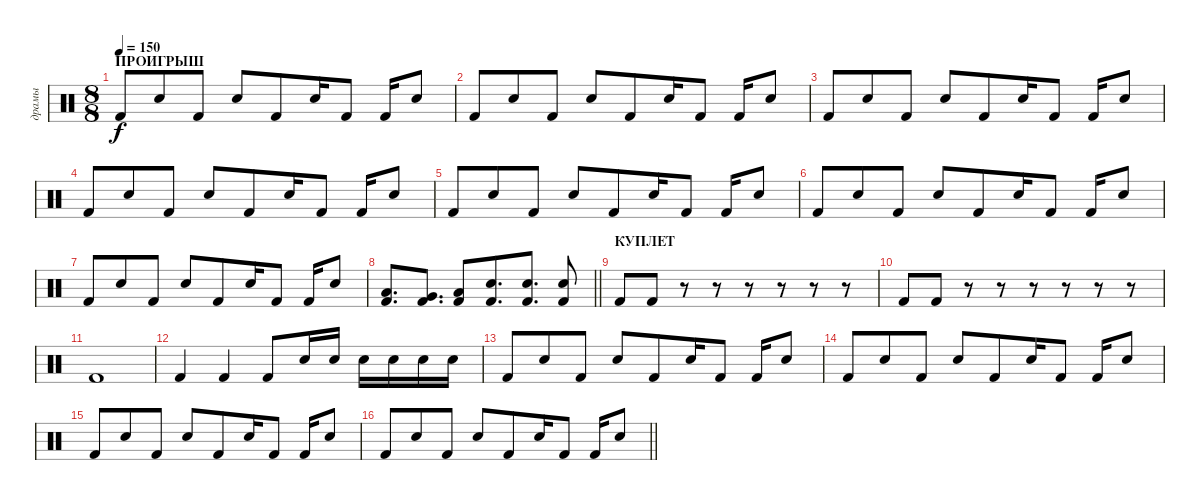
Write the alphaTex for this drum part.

\track ("драмы" "драмы") {instrument percussion}
\staff {score}
\articulation defaults
\ts (8 8)
\section ("" "ПРОИГРЫШ")
\tempo 150
\clef neutral
\ks c "Kick (hit) 2".8{dy f} "Electric Snare (hit)".8 "Kick (hit) 2".8 "Electric Snare (hit)".8 "Kick (hit) 2".8 "Electric Snare (hit)".16 "Kick (hit) 2".8 "Kick (hit) 2".16 "Electric Snare (hit)".8
|
"Kick (hit) 2".8 "Electric Snare (hit)".8 "Kick (hit) 2".8 "Electric Snare (hit)".8 "Kick (hit) 2".8 "Electric Snare (hit)".16 "Kick (hit) 2".8 "Kick (hit) 2".16 "Electric Snare (hit)".8 |
"Kick (hit) 2".8 "Electric Snare (hit)".8 "Kick (hit) 2".8 "Electric Snare (hit)".8 "Kick (hit) 2".8 "Electric Snare (hit)".16 "Kick (hit) 2".8 "Kick (hit) 2".16 "Electric Snare (hit)".8 |
"Kick (hit) 2".8 "Electric Snare (hit)".8 "Kick (hit) 2".8 "Electric Snare (hit)".8 "Kick (hit) 2".8 "Electric Snare (hit)".16 "Kick (hit) 2".8 "Kick (hit) 2".16 "Electric Snare (hit)".8 |
"Kick (hit) 2".8 "Electric Snare (hit)".8 "Kick (hit) 2".8 "Electric Snare (hit)".8 "Kick (hit) 2".8 "Electric Snare (hit)".16 "Kick (hit) 2".8 "Kick (hit) 2".16 "Electric Snare (hit)".8 |
"Kick (hit) 2".8 "Electric Snare (hit)".8 "Kick (hit) 2".8 "Electric Snare (hit)".8 "Kick (hit) 2".8 "Electric Snare (hit)".16 "Kick (hit) 2".8 "Kick (hit) 2".16 "Electric Snare (hit)".8 |
"Kick (hit) 2".8 "Electric Snare (hit)".8 "Kick (hit) 2".8 "Electric Snare (hit)".8 "Kick (hit) 2".8 "Electric Snare (hit)".16 "Kick (hit) 2".8 "Kick (hit) 2".16 "Electric Snare (hit)".8 |
\barLineRight lightlight
("Kick (hit) 2" "Low Tom (hit)").8{d} ("Kick (hit) 2" "Very Low Tom (hit)").8{d} ("Kick (hit) 2" "Low Floor Tom (hit)").8 ("Kick (hit) 2" "Electric Snare (hit)").8{d} ("Kick (hit) 2" "Electric Snare (hit)").8{d} ("Kick (hit) 2" "Electric Snare (hit)").8 |
\section ("" "КУПЛЕТ")
"Kick (hit) 2".8 "Kick (hit) 2".8 r.8 r.8 r.8 r.8 r.8 r.8 |
"Kick (hit) 2".8 "Kick (hit) 2".8 r.8 r.8 r.8 r.8 r.8 r.8 |
"Kick (hit) 2".1 |
"Kick (hit) 2".4 "Kick (hit) 2".4 "Kick (hit) 2".8 "Electric Snare (hit)".16 "Electric Snare (hit)".16 "Electric Snare (hit)".16 "Electric Snare (hit)".16 "Electric Snare (hit)".16 "Electric Snare (hit)".16 |
"Kick (hit) 2".8 "Electric Snare (hit)".8 "Kick (hit) 2".8 "Electric Snare (hit)".8 "Kick (hit) 2".8 "Electric Snare (hit)".16 "Kick (hit) 2".8 "Kick (hit) 2".16 "Electric Snare (hit)".8 |
"Kick (hit) 2".8 "Electric Snare (hit)".8 "Kick (hit) 2".8 "Electric Snare (hit)".8 "Kick (hit) 2".8 "Electric Snare (hit)".16 "Kick (hit) 2".8 "Kick (hit) 2".16 "Electric Snare (hit)".8 |
"Kick (hit) 2".8 "Electric Snare (hit)".8 "Kick (hit) 2".8 "Electric Snare (hit)".8 "Kick (hit) 2".8 "Electric Snare (hit)".16 "Kick (hit) 2".8 "Kick (hit) 2".16 "Electric Snare (hit)".8 |
\barLineRight lightlight "Kick (hit) 2".8 "Electric Snare (hit)".8 "Kick (hit) 2".8 "Electric Snare (hit)".8 "Kick (hit) 2".8 "Electric Snare (hit)".16 "Kick (hit) 2".8 "Kick (hit) 2".16 "Electric Snare (hit)".8
